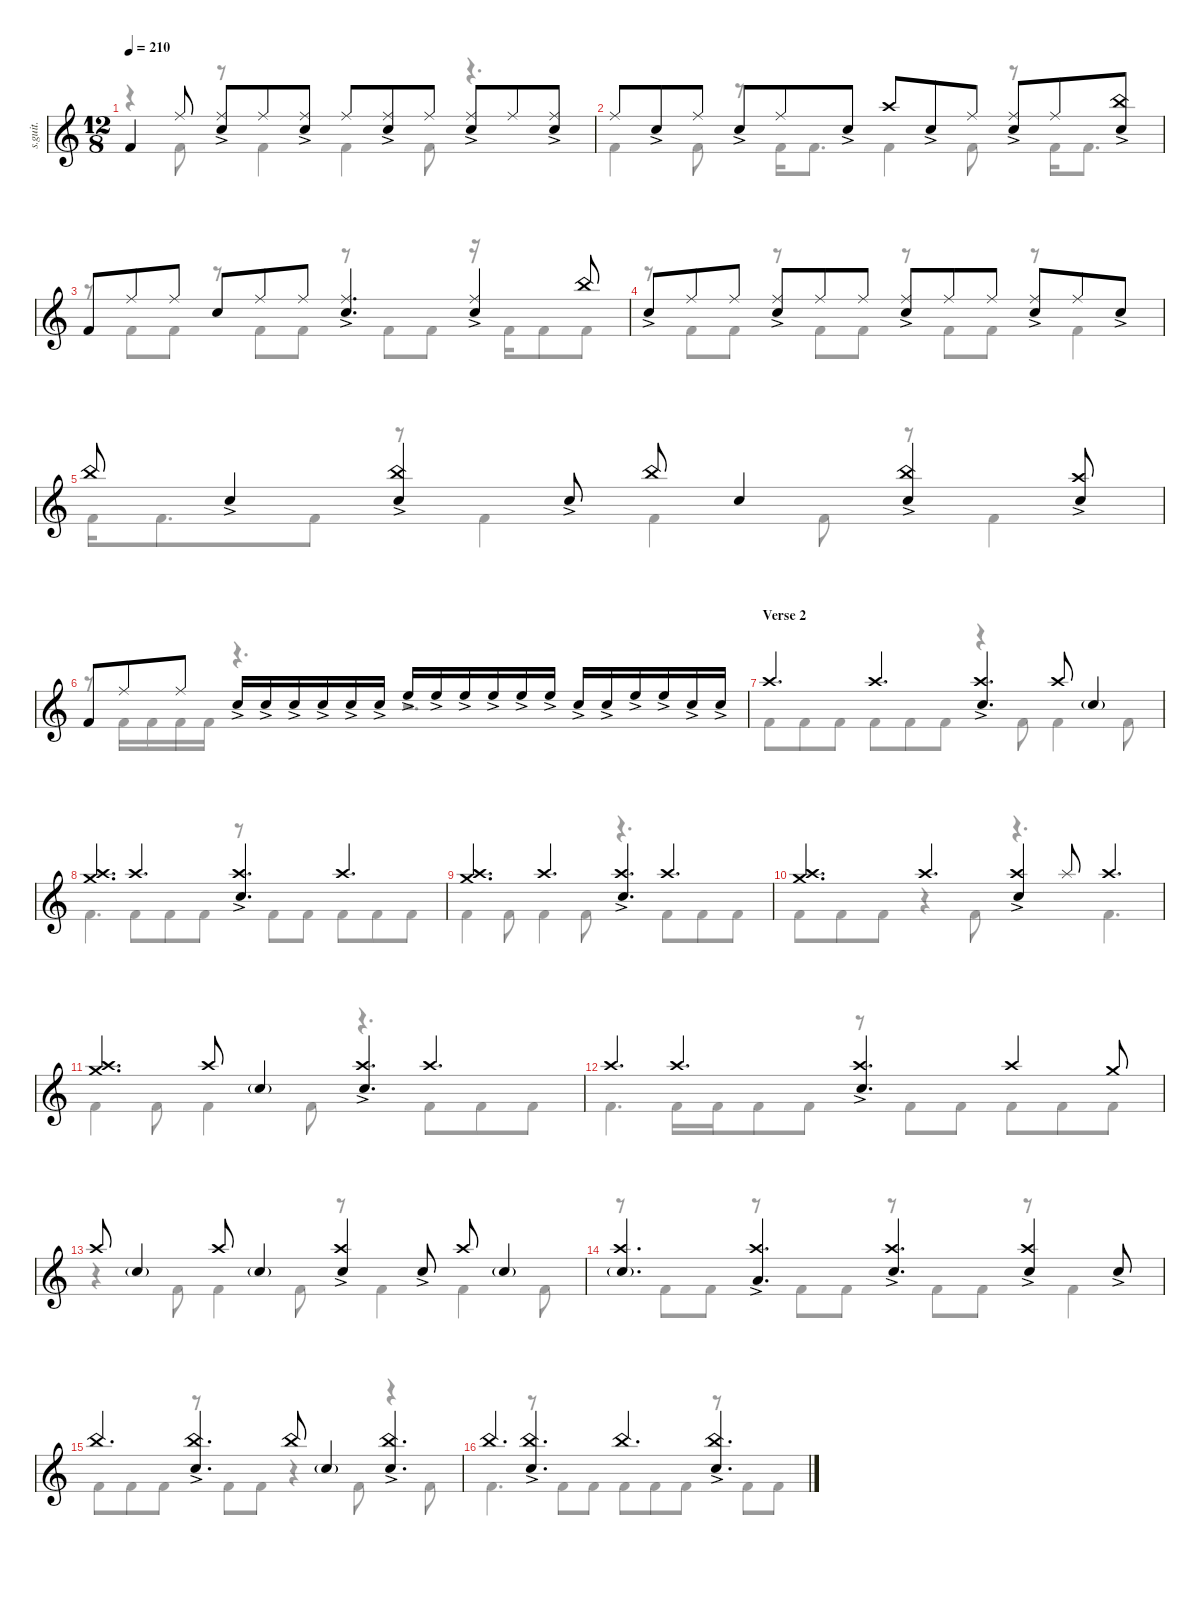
\defaultSystemsLayout 4
\hideDynamics
\bracketExtendMode nobrackets
\track ("Percussion" "s.guit.") {instrument percussion}
\staff {score}
\articulation defaults
\voice
\ts (12 8)
\tempo 210
\clef g2
\ks c "Kick (hit) 2".4{lyrics (0 "") lyrics (1 "") lyrics (2 "") lyrics (3 "") lyrics (4 "") dy f} "Ride (middle)".8{lyrics (0 "") lyrics (1 "") lyrics (2 "") lyrics (3 "") lyrics (4 "")}
("Ride (middle)" "Snare (hit) 2"{ac}).8{lyrics (0 "") lyrics (1 "") lyrics (2 "") lyrics (3 "") lyrics (4 "")} "Ride (middle)".8{lyrics (0 "") lyrics (1 "") lyrics (2 "") lyrics (3 "") lyrics (4 "")} ("Ride (middle)" "Snare (hit) 2"{ac}).8{lyrics (0 "") lyrics (1 "") lyrics (2 "") lyrics (3 "") lyrics (4 "")} "Ride (middle)".8{lyrics (0 "") lyrics (1 "") lyrics (2 "") lyrics (3 "") lyrics (4 "")} ("Ride (middle)" "Snare (hit) 2"{ac}).8{lyrics (0 "") lyrics (1 "") lyrics (2 "") lyrics (3 "") lyrics (4 "")} "Ride (middle)".8{lyrics (0 "") lyrics (1 "") lyrics (2 "") lyrics (3 "") lyrics (4 "")} ("Ride (middle)" "Snare (hit) 2"{ac}).8{lyrics (0 "") lyrics (1 "") lyrics (2 "") lyrics (3 "") lyrics (4 "")} "Ride (middle)".8{lyrics (0 "") lyrics (1 "") lyrics (2 "") lyrics (3 "") lyrics (4 "")} ("Ride (middle)" "Snare (hit) 2"{ac}).8{lyrics (0 "") lyrics (1 "") lyrics (2 "") lyrics (3 "") lyrics (4 "")} |
"Ride (middle)".8{lyrics (0 "") lyrics (1 "") lyrics (2 "") lyrics (3 "") lyrics (4 "")} "Snare (hit) 2"{ac}.8{lyrics (0 "") lyrics (1 "") lyrics (2 "") lyrics (3 "") lyrics (4 "") dy mf} "Ride (middle)".8{lyrics (0 "") lyrics (1 "") lyrics (2 "") lyrics (3 "") lyrics (4 "") dy f} "Snare (hit) 2"{ac}.8{lyrics (0 "") lyrics (1 "") lyrics (2 "") lyrics (3 "") lyrics (4 "") dy mf} "Ride (middle)".8{lyrics (0 "") lyrics (1 "") lyrics (2 "") lyrics (3 "") lyrics (4 "") dy f} "Snare (hit) 2"{ac}.8{lyrics (0 "") lyrics (1 "") lyrics (2 "") lyrics (3 "") lyrics (4 "") dy mf} "Crash high (hit)".8{lyrics (0 "") lyrics (1 "") lyrics (2 "") lyrics (3 "") lyrics (4 "") dy f} "Snare (hit) 2"{ac}.8{lyrics (0 "") lyrics (1 "") lyrics (2 "") lyrics (3 "") lyrics (4 "") dy mf} "Ride (middle)".8{lyrics (0 "") lyrics (1 "") lyrics (2 "") lyrics (3 "") lyrics (4 "") dy f} ("Ride (middle)" "Snare (hit) 2"{ac}).8{lyrics (0 "") lyrics (1 "") lyrics (2 "") lyrics (3 "") lyrics (4 "")} "Ride (middle)".8{lyrics (0 "") lyrics (1 "") lyrics (2 "") lyrics (3 "") lyrics (4 "")} ("China (hit)" "Snare (hit) 2"{ac}).8{lyrics (0 "") lyrics (1 "") lyrics (2 "") lyrics (3 "") lyrics (4 "")} |
"Kick (hit) 2".8{lyrics (0 "") lyrics (1 "") lyrics (2 "") lyrics (3 "") lyrics (4 "")} "Ride (middle)".8{lyrics (0 "") lyrics (1 "") lyrics (2 "") lyrics (3 "") lyrics (4 "")} "Ride (middle)".8{lyrics (0 "") lyrics (1 "") lyrics (2 "") lyrics (3 "") lyrics (4 "")} "Snare (hit) 2".8{lyrics (0 "") lyrics (1 "") lyrics (2 "") lyrics (3 "") lyrics (4 "")} "Ride (middle)".8{lyrics (0 "") lyrics (1 "") lyrics (2 "") lyrics (3 "") lyrics (4 "")} "Ride (middle)".8{lyrics (0 "") lyrics (1 "") lyrics (2 "") lyrics (3 "") lyrics (4 "")} ("Ride (middle)" "Snare (hit) 2"{ac}).4{d lyrics (0 "") lyrics (1 "") lyrics (2 "") lyrics (3 "") lyrics (4 "")} ("Snare (hit) 2"{ac} "Ride (middle)").4{lyrics (0 "") lyrics (1 "") lyrics (2 "") lyrics (3 "") lyrics (4 "")} "China (hit)".8{lyrics (0 "") lyrics (1 "") lyrics (2 "") lyrics (3 "") lyrics (4 "")} |
"Snare (hit) 2"{ac}.8{lyrics (0 "") lyrics (1 "") lyrics (2 "") lyrics (3 "") lyrics (4 "") dy mf} "Ride (middle)".8{lyrics (0 "") lyrics (1 "") lyrics (2 "") lyrics (3 "") lyrics (4 "") dy f} "Ride (middle)".8{lyrics (0 "") lyrics (1 "") lyrics (2 "") lyrics (3 "") lyrics (4 "")} ("Ride (middle)" "Snare (hit) 2"{ac}).8{lyrics (0 "") lyrics (1 "") lyrics (2 "") lyrics (3 "") lyrics (4 "")} "Ride (middle)".8{lyrics (0 "") lyrics (1 "") lyrics (2 "") lyrics (3 "") lyrics (4 "")} "Ride (middle)".8{lyrics (0 "") lyrics (1 "") lyrics (2 "") lyrics (3 "") lyrics (4 "")} ("Ride (middle)" "Snare (hit) 2"{ac}).8{lyrics (0 "") lyrics (1 "") lyrics (2 "") lyrics (3 "") lyrics (4 "")} "Ride (middle)".8{lyrics (0 "") lyrics (1 "") lyrics (2 "") lyrics (3 "") lyrics (4 "")} "Ride (middle)".8{lyrics (0 "") lyrics (1 "") lyrics (2 "") lyrics (3 "") lyrics (4 "")} ("Ride (middle)" "Snare (hit) 2"{ac}).8{lyrics (0 "") lyrics (1 "") lyrics (2 "") lyrics (3 "") lyrics (4 "")} "Ride (middle)".8{lyrics (0 "") lyrics (1 "") lyrics (2 "") lyrics (3 "") lyrics (4 "")} "Snare (hit) 2"{ac}.8{lyrics (0 "") lyrics (1 "") lyrics (2 "") lyrics (3 "") lyrics (4 "") dy mf} |
"China (hit)".8{lyrics (0 "") lyrics (1 "") lyrics (2 "") lyrics (3 "") lyrics (4 "") dy f} "Snare (hit) 2"{ac}.4{lyrics (0 "") lyrics (1 "") lyrics (2 "") lyrics (3 "") lyrics (4 "") dy mf} ("China (hit)" "Snare (hit) 2"{ac}).4{lyrics (0 "") lyrics (1 "") lyrics (2 "") lyrics (3 "") lyrics (4 "") dy f} "Snare (hit) 2"{ac}.8{lyrics (0 "") lyrics (1 "") lyrics (2 "") lyrics (3 "") lyrics (4 "") dy mf} "China (hit)".8{lyrics (0 "") lyrics (1 "") lyrics (2 "") lyrics (3 "") lyrics (4 "") dy f} "Snare (hit) 2".4{lyrics (0 "") lyrics (1 "") lyrics (2 "") lyrics (3 "") lyrics (4 "")} ("China (hit)" "Snare (hit) 2"{ac}).4{lyrics (0 "") lyrics (1 "") lyrics (2 "") lyrics (3 "") lyrics (4 "")} ("Crash high (hit)" "Snare (hit) 2"{ac}).8{lyrics (0 "") lyrics (1 "") lyrics (2 "") lyrics (3 "") lyrics (4 "")} |
"Kick (hit) 2".8{lyrics (0 "") lyrics (1 "") lyrics (2 "") lyrics (3 "") lyrics (4 "")} "Ride (middle)".8{lyrics (0 "") lyrics (1 "") lyrics (2 "") lyrics (3 "") lyrics (4 "")} "Ride (middle)".8{lyrics (0 "") lyrics (1 "") lyrics (2 "") lyrics (3 "") lyrics (4 "")} "Snare (hit) 2"{ac}.16{lyrics (0 "") lyrics (1 "") lyrics (2 "") lyrics (3 "") lyrics (4 "") dy mf} "Snare (hit) 2"{ac}.16{lyrics (0 "") lyrics (1 "") lyrics (2 "") lyrics (3 "") lyrics (4 "")} "Snare (hit) 2"{ac}.16{lyrics (0 "") lyrics (1 "") lyrics (2 "") lyrics (3 "") lyrics (4 "")} "Snare (hit) 2"{ac}.16{lyrics (0 "") lyrics (1 "") lyrics (2 "") lyrics (3 "") lyrics (4 "")} "Snare (hit) 2"{ac}.16{lyrics (0 "") lyrics (1 "") lyrics (2 "") lyrics (3 "") lyrics (4 "")} "Snare (hit) 2"{ac}.16{lyrics (0 "") lyrics (1 "") lyrics (2 "") lyrics (3 "") lyrics (4 "")} "High Floor Tom (hit)"{ac}.16{lyrics (0 "") lyrics (1 "") lyrics (2 "") lyrics (3 "") lyrics (4 "")} "High Floor Tom (hit)"{ac}.16{lyrics (0 "") lyrics (1 "") lyrics (2 "") lyrics (3 "") lyrics (4 "")} "High Floor Tom (hit)"{ac}.16{lyrics (0 "") lyrics (1 "") lyrics (2 "") lyrics (3 "") lyrics (4 "")} "High Floor Tom (hit)"{ac}.16{lyrics (0 "") lyrics (1 "") lyrics (2 "") lyrics (3 "") lyrics (4 "")} "High Floor Tom (hit)"{ac}.16{lyrics (0 "") lyrics (1 "") lyrics (2 "") lyrics (3 "") lyrics (4 "")} "High Floor Tom (hit)"{ac}.16{lyrics (0 "") lyrics (1 "") lyrics (2 "") lyrics (3 "") lyrics (4 "")} "Snare (hit) 2"{ac}.16{lyrics (0 "") lyrics (1 "") lyrics (2 "") lyrics (3 "") lyrics (4 "")} "Snare (hit) 2"{ac}.16{lyrics (0 "") lyrics (1 "") lyrics (2 "") lyrics (3 "") lyrics (4 "")} "High Floor Tom (hit)"{ac}.16{lyrics (0 "") lyrics (1 "") lyrics (2 "") lyrics (3 "") lyrics (4 "")} "High Floor Tom (hit)"{ac}.16{lyrics (0 "") lyrics (1 "") lyrics (2 "") lyrics (3 "") lyrics (4 "")} "Snare (hit) 2"{ac}.16{lyrics (0 "") lyrics (1 "") lyrics (2 "") lyrics (3 "") lyrics (4 "")} "Snare (hit) 2"{ac}.16{lyrics (0 "") lyrics (1 "") lyrics (2 "") lyrics (3 "") lyrics (4 "")} |
\section ("" "Verse 2")
"Crash high (hit)".4{d lyrics (0 "") lyrics (1 "") lyrics (2 "") lyrics (3 "") lyrics (4 "") dy f} "Crash high (hit)".4{d lyrics (0 "") lyrics (1 "") lyrics (2 "") lyrics (3 "") lyrics (4 "")} ("Crash high (hit)" "Snare (hit) 2"{ac}).4{d lyrics (0 "") lyrics (1 "") lyrics (2 "") lyrics (3 "") lyrics (4 "")} "Crash high (hit)".8{lyrics (0 "") lyrics (1 "") lyrics (2 "") lyrics (3 "") lyrics (4 "")} "Snare (hit) 2"{g}.4{lyrics (0 "") lyrics (1 "") lyrics (2 "") lyrics (3 "") lyrics (4 "") dy ff} |
("Crash high (hit)" "Crash medium (hit)").4{d lyrics (0 "") lyrics (1 "") lyrics (2 "") lyrics (3 "") lyrics (4 "") dy f} "Crash high (hit)".4{d lyrics (0 "") lyrics (1 "") lyrics (2 "") lyrics (3 "") lyrics (4 "")} ("Crash high (hit)" "Snare (hit) 2"{ac}).4{d lyrics (0 "") lyrics (1 "") lyrics (2 "") lyrics (3 "") lyrics (4 "")} "Crash high (hit)".4{d lyrics (0 "") lyrics (1 "") lyrics (2 "") lyrics (3 "") lyrics (4 "")} |
("Crash high (hit)" "Crash medium (hit)").4{d lyrics (0 "") lyrics (1 "") lyrics (2 "") lyrics (3 "") lyrics (4 "")} "Crash high (hit)".4{d lyrics (0 "") lyrics (1 "") lyrics (2 "") lyrics (3 "") lyrics (4 "")} ("Crash high (hit)" "Snare (hit) 2"{ac}).4{d lyrics (0 "") lyrics (1 "") lyrics (2 "") lyrics (3 "") lyrics (4 "")} "Crash high (hit)".4{d lyrics (0 "") lyrics (1 "") lyrics (2 "") lyrics (3 "") lyrics (4 "")} |
("Crash high (hit)" "Crash medium (hit)").4{d lyrics (0 "") lyrics (1 "") lyrics (2 "") lyrics (3 "") lyrics (4 "")} "Crash high (hit)".4{d lyrics (0 "") lyrics (1 "") lyrics (2 "") lyrics (3 "") lyrics (4 "")} ("Crash high (hit)" "Snare (hit) 2"{ac}).4{lyrics (0 "") lyrics (1 "") lyrics (2 "") lyrics (3 "") lyrics (4 "")} "Splash (hit)".8{lyrics (0 "") lyrics (1 "") lyrics (2 "") lyrics (3 "") lyrics (4 "")} "Crash high (hit)".4{d lyrics (0 "") lyrics (1 "") lyrics (2 "") lyrics (3 "") lyrics (4 "")} |
("Crash high (hit)" "Crash medium (hit)").4{d lyrics (0 "") lyrics (1 "") lyrics (2 "") lyrics (3 "") lyrics (4 "")} "Crash high (hit)".8{lyrics (0 "") lyrics (1 "") lyrics (2 "") lyrics (3 "") lyrics (4 "")} "Snare (hit) 2"{g}.4{lyrics (0 "") lyrics (1 "") lyrics (2 "") lyrics (3 "") lyrics (4 "") dy ff} ("Crash high (hit)" "Snare (hit) 2"{ac}).4{d lyrics (0 "") lyrics (1 "") lyrics (2 "") lyrics (3 "") lyrics (4 "") dy f} "Crash high (hit)".4{d lyrics (0 "") lyrics (1 "") lyrics (2 "") lyrics (3 "") lyrics (4 "")} |
"Crash high (hit)".4{d lyrics (0 "") lyrics (1 "") lyrics (2 "") lyrics (3 "") lyrics (4 "")} "Crash high (hit)".4{d lyrics (0 "") lyrics (1 "") lyrics (2 "") lyrics (3 "") lyrics (4 "")} ("Crash high (hit)" "Snare (hit) 2"{ac}).4{d lyrics (0 "") lyrics (1 "") lyrics (2 "") lyrics (3 "") lyrics (4 "")} "Crash high (hit)".4{lyrics (0 "") lyrics (1 "") lyrics (2 "") lyrics (3 "") lyrics (4 "")} "Crash medium (hit)".8{lyrics (0 "") lyrics (1 "") lyrics (2 "") lyrics (3 "") lyrics (4 "")} |
"Crash high (hit)".8{lyrics (0 "") lyrics (1 "") lyrics (2 "") lyrics (3 "") lyrics (4 "")} "Snare (hit) 2"{g}.4{lyrics (0 "") lyrics (1 "") lyrics (2 "") lyrics (3 "") lyrics (4 "") dy ff} "Crash high (hit)".8{lyrics (0 "") lyrics (1 "") lyrics (2 "") lyrics (3 "") lyrics (4 "") dy f} "Snare (hit) 2"{g}.4{lyrics (0 "") lyrics (1 "") lyrics (2 "") lyrics (3 "") lyrics (4 "") dy ff} ("Snare (hit) 2"{ac} "Crash high (hit)").4{lyrics (0 "") lyrics (1 "") lyrics (2 "") lyrics (3 "") lyrics (4 "") dy f} "Snare (hit) 2"{ac}.8{lyrics (0 "") lyrics (1 "") lyrics (2 "") lyrics (3 "") lyrics (4 "") dy mf} "Crash high (hit)".8{lyrics (0 "") lyrics (1 "") lyrics (2 "") lyrics (3 "") lyrics (4 "") dy f} "Snare (hit) 2"{g}.4{lyrics (0 "") lyrics (1 "") lyrics (2 "") lyrics (3 "") lyrics (4 "") dy ff} |
("Crash high (hit)" "Snare (hit) 2"{g}).4{d lyrics (0 "") lyrics (1 "") lyrics (2 "") lyrics (3 "") lyrics (4 "") dy f} ("Crash high (hit)" "Low Tom (hit)"{ac}).4{d lyrics (0 "") lyrics (1 "") lyrics (2 "") lyrics (3 "") lyrics (4 "")} ("Crash high (hit)" "Snare (hit) 2"{ac}).4{d lyrics (0 "") lyrics (1 "") lyrics (2 "") lyrics (3 "") lyrics (4 "")} ("Crash high (hit)" "Snare (hit) 2"{ac}).4{lyrics (0 "") lyrics (1 "") lyrics (2 "") lyrics (3 "") lyrics (4 "")} "Snare (hit) 2"{ac}.8{lyrics (0 "") lyrics (1 "") lyrics (2 "") lyrics (3 "") lyrics (4 "") dy mf} |
"China (hit)".4{d lyrics (0 "") lyrics (1 "") lyrics (2 "") lyrics (3 "") lyrics (4 "") dy f} ("China (hit)" "Snare (hit) 2"{ac}).4{d lyrics (0 "") lyrics (1 "") lyrics (2 "") lyrics (3 "") lyrics (4 "")} "China (hit)".8{lyrics (0 "") lyrics (1 "") lyrics (2 "") lyrics (3 "") lyrics (4 "")} "Snare (hit) 2"{g}.4{lyrics (0 "") lyrics (1 "") lyrics (2 "") lyrics (3 "") lyrics (4 "") dy ff} ("China (hit)" "Snare (hit) 2"{ac}).4{d lyrics (0 "") lyrics (1 "") lyrics (2 "") lyrics (3 "") lyrics (4 "") dy f} |
"China (hit)".4{d lyrics (0 "") lyrics (1 "") lyrics (2 "") lyrics (3 "") lyrics (4 "")} ("China (hit)" "Snare (hit) 2"{ac}).4{d lyrics (0 "") lyrics (1 "") lyrics (2 "") lyrics (3 "") lyrics (4 "")} "China (hit)".4{d lyrics (0 "") lyrics (1 "") lyrics (2 "") lyrics (3 "") lyrics (4 "")} ("China (hit)" "Snare (hit) 2"{ac}).4{d lyrics (0 "") lyrics (1 "") lyrics (2 "") lyrics (3 "") lyrics (4 "")}
\voice
\clef g2
\ottava regular
\simile none
\ks c
r.4{dy f} "Kick (hit) 2".8{lyrics (0 "") lyrics (1 "") lyrics (2 "") lyrics (3 "") lyrics (4 "")} r.8 "Kick (hit) 2".4{lyrics (0 "") lyrics (1 "") lyrics (2 "") lyrics (3 "") lyrics (4 "")} "Kick (hit) 2".4{lyrics (0 "") lyrics (1 "") lyrics (2 "") lyrics (3 "") lyrics (4 "")} "Kick (hit) 2".8{lyrics (0 "") lyrics (1 "") lyrics (2 "") lyrics (3 "") lyrics (4 "")} r.4{d} |
"Kick (hit) 2".4{lyrics (0 "") lyrics (1 "") lyrics (2 "") lyrics (3 "") lyrics (4 "")} "Kick (hit) 2".8{lyrics (0 "") lyrics (1 "") lyrics (2 "") lyrics (3 "") lyrics (4 "")} r.8 "Kick (hit) 2".16{lyrics (0 "") lyrics (1 "") lyrics (2 "") lyrics (3 "") lyrics (4 "")} "Kick (hit) 2".8{d lyrics (0 "") lyrics (1 "") lyrics (2 "") lyrics (3 "") lyrics (4 "")} "Kick (hit) 2".4{lyrics (0 "") lyrics (1 "") lyrics (2 "") lyrics (3 "") lyrics (4 "")} "Kick (hit) 2".8{lyrics (0 "") lyrics (1 "") lyrics (2 "") lyrics (3 "") lyrics (4 "")} r.8 "Kick (hit) 2".16{lyrics (0 "") lyrics (1 "") lyrics (2 "") lyrics (3 "") lyrics (4 "")} "Kick (hit) 2".8{d lyrics (0 "") lyrics (1 "") lyrics (2 "") lyrics (3 "") lyrics (4 "")} |
r.8 "Kick (hit) 2".8{lyrics (0 "") lyrics (1 "") lyrics (2 "") lyrics (3 "") lyrics (4 "")} "Kick (hit) 2".8{lyrics (0 "") lyrics (1 "") lyrics (2 "") lyrics (3 "") lyrics (4 "")} r.8 "Kick (hit) 2".8{lyrics (0 "") lyrics (1 "") lyrics (2 "") lyrics (3 "") lyrics (4 "")} "Kick (hit) 2".8{lyrics (0 "") lyrics (1 "") lyrics (2 "") lyrics (3 "") lyrics (4 "")} r.8 "Kick (hit) 2".8{lyrics (0 "") lyrics (1 "") lyrics (2 "") lyrics (3 "") lyrics (4 "")} "Kick (hit) 2".8{lyrics (0 "") lyrics (1 "") lyrics (2 "") lyrics (3 "") lyrics (4 "")} r.16 "Kick (hit) 2".16{lyrics (0 "") lyrics (1 "") lyrics (2 "") lyrics (3 "") lyrics (4 "")} "Kick (hit) 2".8{lyrics (0 "") lyrics (1 "") lyrics (2 "") lyrics (3 "") lyrics (4 "")} "Kick (hit) 2".8{lyrics (0 "") lyrics (1 "") lyrics (2 "") lyrics (3 "") lyrics (4 "")} |
r.8 "Kick (hit) 2".8{lyrics (0 "") lyrics (1 "") lyrics (2 "") lyrics (3 "") lyrics (4 "")} "Kick (hit) 2".8{lyrics (0 "") lyrics (1 "") lyrics (2 "") lyrics (3 "") lyrics (4 "")} r.8 "Kick (hit) 2".8{lyrics (0 "") lyrics (1 "") lyrics (2 "") lyrics (3 "") lyrics (4 "")} "Kick (hit) 2".8{lyrics (0 "") lyrics (1 "") lyrics (2 "") lyrics (3 "") lyrics (4 "")} r.8 "Kick (hit) 2".8{lyrics (0 "") lyrics (1 "") lyrics (2 "") lyrics (3 "") lyrics (4 "")} "Kick (hit) 2".8{lyrics (0 "") lyrics (1 "") lyrics (2 "") lyrics (3 "") lyrics (4 "")} r.8 "Kick (hit) 2".4{lyrics (0 "") lyrics (1 "") lyrics (2 "") lyrics (3 "") lyrics (4 "")} |
"Kick (hit) 2".16{lyrics (0 "") lyrics (1 "") lyrics (2 "") lyrics (3 "") lyrics (4 "")} "Kick (hit) 2".8{d lyrics (0 "") lyrics (1 "") lyrics (2 "") lyrics (3 "") lyrics (4 "")} "Kick (hit) 2".8{lyrics (0 "") lyrics (1 "") lyrics (2 "") lyrics (3 "") lyrics (4 "")} r.8 "Kick (hit) 2".4{lyrics (0 "") lyrics (1 "") lyrics (2 "") lyrics (3 "") lyrics (4 "")} "Kick (hit) 2".4{lyrics (0 "") lyrics (1 "") lyrics (2 "") lyrics (3 "") lyrics (4 "")} "Kick (hit) 2".8{lyrics (0 "") lyrics (1 "") lyrics (2 "") lyrics (3 "") lyrics (4 "")} r.8 "Kick (hit) 2".4{lyrics (0 "") lyrics (1 "") lyrics (2 "") lyrics (3 "") lyrics (4 "")} |
r.8 "Kick (hit) 2".16{lyrics (0 "") lyrics (1 "") lyrics (2 "") lyrics (3 "") lyrics (4 "")} "Kick (hit) 2".16{lyrics (0 "") lyrics (1 "") lyrics (2 "") lyrics (3 "") lyrics (4 "")} "Kick (hit) 2".16{lyrics (0 "") lyrics (1 "") lyrics (2 "") lyrics (3 "") lyrics (4 "")} "Kick (hit) 2".16{lyrics (0 "") lyrics (1 "") lyrics (2 "") lyrics (3 "") lyrics (4 "")} r.4{d} r.2{d} |
"Kick (hit) 2".8{lyrics (0 "") lyrics (1 "") lyrics (2 "") lyrics (3 "") lyrics (4 "")} "Kick (hit) 2".8{lyrics (0 "") lyrics (1 "") lyrics (2 "") lyrics (3 "") lyrics (4 "")} "Kick (hit) 2".8{lyrics (0 "") lyrics (1 "") lyrics (2 "") lyrics (3 "") lyrics (4 "")} "Kick (hit) 2".8{lyrics (0 "") lyrics (1 "") lyrics (2 "") lyrics (3 "") lyrics (4 "")} "Kick (hit) 2".8{lyrics (0 "") lyrics (1 "") lyrics (2 "") lyrics (3 "") lyrics (4 "")} "Kick (hit) 2".8{lyrics (0 "") lyrics (1 "") lyrics (2 "") lyrics (3 "") lyrics (4 "")} r.4 "Kick (hit) 2".8{lyrics (0 "") lyrics (1 "") lyrics (2 "") lyrics (3 "") lyrics (4 "")} "Kick (hit) 2".4{lyrics (0 "") lyrics (1 "") lyrics (2 "") lyrics (3 "") lyrics (4 "")} "Kick (hit) 2".8{lyrics (0 "") lyrics (1 "") lyrics (2 "") lyrics (3 "") lyrics (4 "")} |
"Kick (hit) 2".4{d lyrics (0 "") lyrics (1 "") lyrics (2 "") lyrics (3 "") lyrics (4 "")} "Kick (hit) 2".8{lyrics (0 "") lyrics (1 "") lyrics (2 "") lyrics (3 "") lyrics (4 "")} "Kick (hit) 2".8{lyrics (0 "") lyrics (1 "") lyrics (2 "") lyrics (3 "") lyrics (4 "")} "Kick (hit) 2".8{lyrics (0 "") lyrics (1 "") lyrics (2 "") lyrics (3 "") lyrics (4 "")} r.8 "Kick (hit) 2".8{lyrics (0 "") lyrics (1 "") lyrics (2 "") lyrics (3 "") lyrics (4 "")} "Kick (hit) 2".8{lyrics (0 "") lyrics (1 "") lyrics (2 "") lyrics (3 "") lyrics (4 "")} "Kick (hit) 2".8{lyrics (0 "") lyrics (1 "") lyrics (2 "") lyrics (3 "") lyrics (4 "")} "Kick (hit) 2".8{lyrics (0 "") lyrics (1 "") lyrics (2 "") lyrics (3 "") lyrics (4 "")} "Kick (hit) 2".8{lyrics (0 "") lyrics (1 "") lyrics (2 "") lyrics (3 "") lyrics (4 "")} |
"Kick (hit) 2".4{lyrics (0 "") lyrics (1 "") lyrics (2 "") lyrics (3 "") lyrics (4 "")} "Kick (hit) 2".8{lyrics (0 "") lyrics (1 "") lyrics (2 "") lyrics (3 "") lyrics (4 "")} "Kick (hit) 2".4{lyrics (0 "") lyrics (1 "") lyrics (2 "") lyrics (3 "") lyrics (4 "")} "Kick (hit) 2".8{lyrics (0 "") lyrics (1 "") lyrics (2 "") lyrics (3 "") lyrics (4 "")} r.4{d} "Kick (hit) 2".8{lyrics (0 "") lyrics (1 "") lyrics (2 "") lyrics (3 "") lyrics (4 "")} "Kick (hit) 2".8{lyrics (0 "") lyrics (1 "") lyrics (2 "") lyrics (3 "") lyrics (4 "")} "Kick (hit) 2".8{lyrics (0 "") lyrics (1 "") lyrics (2 "") lyrics (3 "") lyrics (4 "")} |
"Kick (hit) 2".8{lyrics (0 "") lyrics (1 "") lyrics (2 "") lyrics (3 "") lyrics (4 "")} "Kick (hit) 2".8{lyrics (0 "") lyrics (1 "") lyrics (2 "") lyrics (3 "") lyrics (4 "")} "Kick (hit) 2".8{lyrics (0 "") lyrics (1 "") lyrics (2 "") lyrics (3 "") lyrics (4 "")} r.4 "Kick (hit) 2".8{lyrics (0 "") lyrics (1 "") lyrics (2 "") lyrics (3 "") lyrics (4 "")} r.4{d} "Kick (hit) 2".4{d lyrics (0 "") lyrics (1 "") lyrics (2 "") lyrics (3 "") lyrics (4 "")} |
"Kick (hit) 2".4{lyrics (0 "") lyrics (1 "") lyrics (2 "") lyrics (3 "") lyrics (4 "")} "Kick (hit) 2".8{lyrics (0 "") lyrics (1 "") lyrics (2 "") lyrics (3 "") lyrics (4 "")} "Kick (hit) 2".4{lyrics (0 "") lyrics (1 "") lyrics (2 "") lyrics (3 "") lyrics (4 "")} "Kick (hit) 2".8{lyrics (0 "") lyrics (1 "") lyrics (2 "") lyrics (3 "") lyrics (4 "")} r.4{d} "Kick (hit) 2".8{lyrics (0 "") lyrics (1 "") lyrics (2 "") lyrics (3 "") lyrics (4 "")} "Kick (hit) 2".8{lyrics (0 "") lyrics (1 "") lyrics (2 "") lyrics (3 "") lyrics (4 "")} "Kick (hit) 2".8{lyrics (0 "") lyrics (1 "") lyrics (2 "") lyrics (3 "") lyrics (4 "")} |
"Kick (hit) 2".4{d lyrics (0 "") lyrics (1 "") lyrics (2 "") lyrics (3 "") lyrics (4 "")} "Kick (hit) 2".16{lyrics (0 "") lyrics (1 "") lyrics (2 "") lyrics (3 "") lyrics (4 "")} "Kick (hit) 2".16{lyrics (0 "") lyrics (1 "") lyrics (2 "") lyrics (3 "") lyrics (4 "")} "Kick (hit) 2".8{lyrics (0 "") lyrics (1 "") lyrics (2 "") lyrics (3 "") lyrics (4 "")} "Kick (hit) 2".8{lyrics (0 "") lyrics (1 "") lyrics (2 "") lyrics (3 "") lyrics (4 "")} r.8 "Kick (hit) 2".8{lyrics (0 "") lyrics (1 "") lyrics (2 "") lyrics (3 "") lyrics (4 "")} "Kick (hit) 2".8{lyrics (0 "") lyrics (1 "") lyrics (2 "") lyrics (3 "") lyrics (4 "")} "Kick (hit) 2".8{lyrics (0 "") lyrics (1 "") lyrics (2 "") lyrics (3 "") lyrics (4 "")} "Kick (hit) 2".8{lyrics (0 "") lyrics (1 "") lyrics (2 "") lyrics (3 "") lyrics (4 "")} "Kick (hit) 2".8{lyrics (0 "") lyrics (1 "") lyrics (2 "") lyrics (3 "") lyrics (4 "")} |
r.4 "Kick (hit) 2".8{lyrics (0 "") lyrics (1 "") lyrics (2 "") lyrics (3 "") lyrics (4 "")} "Kick (hit) 2".4{lyrics (0 "") lyrics (1 "") lyrics (2 "") lyrics (3 "") lyrics (4 "")} "Kick (hit) 2".8{lyrics (0 "") lyrics (1 "") lyrics (2 "") lyrics (3 "") lyrics (4 "")} r.8 "Kick (hit) 2".4{lyrics (0 "") lyrics (1 "") lyrics (2 "") lyrics (3 "") lyrics (4 "")} "Kick (hit) 2".4{lyrics (0 "") lyrics (1 "") lyrics (2 "") lyrics (3 "") lyrics (4 "")} "Kick (hit) 2".8{lyrics (0 "") lyrics (1 "") lyrics (2 "") lyrics (3 "") lyrics (4 "")} |
r.8 "Kick (hit) 2".8{lyrics (0 "") lyrics (1 "") lyrics (2 "") lyrics (3 "") lyrics (4 "")} "Kick (hit) 2".8{lyrics (0 "") lyrics (1 "") lyrics (2 "") lyrics (3 "") lyrics (4 "")} r.8 "Kick (hit) 2".8{lyrics (0 "") lyrics (1 "") lyrics (2 "") lyrics (3 "") lyrics (4 "")} "Kick (hit) 2".8{lyrics (0 "") lyrics (1 "") lyrics (2 "") lyrics (3 "") lyrics (4 "")} r.8 "Kick (hit) 2".8{lyrics (0 "") lyrics (1 "") lyrics (2 "") lyrics (3 "") lyrics (4 "")} "Kick (hit) 2".8{lyrics (0 "") lyrics (1 "") lyrics (2 "") lyrics (3 "") lyrics (4 "")} r.8 "Kick (hit) 2".4{lyrics (0 "") lyrics (1 "") lyrics (2 "") lyrics (3 "") lyrics (4 "")} |
"Kick (hit) 2".8{lyrics (0 "") lyrics (1 "") lyrics (2 "") lyrics (3 "") lyrics (4 "")} "Kick (hit) 2".8{lyrics (0 "") lyrics (1 "") lyrics (2 "") lyrics (3 "") lyrics (4 "")} "Kick (hit) 2".8{lyrics (0 "") lyrics (1 "") lyrics (2 "") lyrics (3 "") lyrics (4 "")} r.8 "Kick (hit) 2".8{lyrics (0 "") lyrics (1 "") lyrics (2 "") lyrics (3 "") lyrics (4 "")} "Kick (hit) 2".8{lyrics (0 "") lyrics (1 "") lyrics (2 "") lyrics (3 "") lyrics (4 "")} r.4 "Kick (hit) 2".8{lyrics (0 "") lyrics (1 "") lyrics (2 "") lyrics (3 "") lyrics (4 "")} r.4 "Kick (hit) 2".8{lyrics (0 "") lyrics (1 "") lyrics (2 "") lyrics (3 "") lyrics (4 "")} |
"Kick (hit) 2".4{d lyrics (0 "") lyrics (1 "") lyrics (2 "") lyrics (3 "") lyrics (4 "")} r.8 "Kick (hit) 2".8{lyrics (0 "") lyrics (1 "") lyrics (2 "") lyrics (3 "") lyrics (4 "")} "Kick (hit) 2".8{lyrics (0 "") lyrics (1 "") lyrics (2 "") lyrics (3 "") lyrics (4 "")} "Kick (hit) 2".8{lyrics (0 "") lyrics (1 "") lyrics (2 "") lyrics (3 "") lyrics (4 "")} "Kick (hit) 2".8{lyrics (0 "") lyrics (1 "") lyrics (2 "") lyrics (3 "") lyrics (4 "")} "Kick (hit) 2".8{lyrics (0 "") lyrics (1 "") lyrics (2 "") lyrics (3 "") lyrics (4 "")} r.8 "Kick (hit) 2".8{lyrics (0 "") lyrics (1 "") lyrics (2 "") lyrics (3 "") lyrics (4 "")} "Kick (hit) 2".8{lyrics (0 "") lyrics (1 "") lyrics (2 "") lyrics (3 "") lyrics (4 "")}
